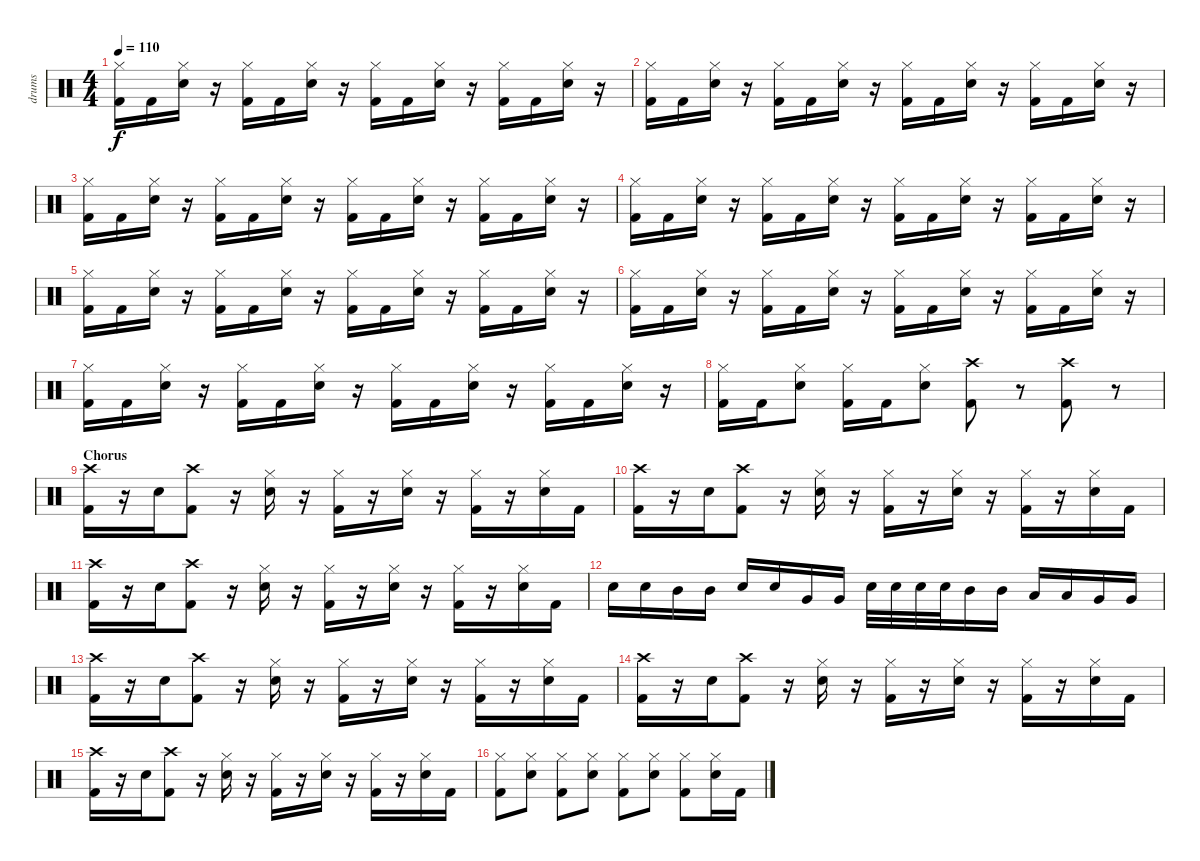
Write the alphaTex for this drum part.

\track ("drums" "drums") {instrument percussion}
\staff {score}
\articulation defaults
\ts (4 4)
\tempo 110
\clef neutral
\ks c
("Hi-Hat (closed)" "Kick (hit) 2").16{dy f} "Kick (hit) 2".16 ("Hi-Hat (closed)" "Snare (hit) 2").16 r.16 ("Hi-Hat (closed)" "Kick (hit) 2").16 "Kick (hit) 2".16 ("Hi-Hat (closed)" "Snare (hit) 2").16 r.16 ("Hi-Hat (closed)" "Kick (hit) 2").16 "Kick (hit) 2".16 ("Hi-Hat (closed)" "Snare (hit) 2").16 r.16 ("Hi-Hat (closed)" "Kick (hit) 2").16 "Kick (hit) 2".16 ("Hi-Hat (closed)" "Snare (hit) 2").16 r.16 |
("Hi-Hat (closed)" "Kick (hit) 2").16 "Kick (hit) 2".16 ("Hi-Hat (closed)" "Snare (hit) 2").16 r.16 ("Hi-Hat (closed)" "Kick (hit) 2").16 "Kick (hit) 2".16 ("Hi-Hat (closed)" "Snare (hit) 2").16 r.16 ("Hi-Hat (closed)" "Kick (hit) 2").16 "Kick (hit) 2".16 ("Hi-Hat (closed)" "Snare (hit) 2").16 r.16 ("Hi-Hat (closed)" "Kick (hit) 2").16 "Kick (hit) 2".16 ("Hi-Hat (closed)" "Snare (hit) 2").16 r.16 |
("Hi-Hat (closed)" "Kick (hit) 2").16 "Kick (hit) 2".16 ("Hi-Hat (closed)" "Snare (hit) 2").16 r.16 ("Hi-Hat (closed)" "Kick (hit) 2").16 "Kick (hit) 2".16 ("Hi-Hat (closed)" "Snare (hit) 2").16 r.16 ("Hi-Hat (closed)" "Kick (hit) 2").16 "Kick (hit) 2".16 ("Hi-Hat (closed)" "Snare (hit) 2").16 r.16 ("Hi-Hat (closed)" "Kick (hit) 2").16 "Kick (hit) 2".16 ("Hi-Hat (closed)" "Snare (hit) 2").16 r.16 |
("Hi-Hat (closed)" "Kick (hit) 2").16 "Kick (hit) 2".16 ("Hi-Hat (closed)" "Snare (hit) 2").16 r.16 ("Hi-Hat (closed)" "Kick (hit) 2").16 "Kick (hit) 2".16 ("Hi-Hat (closed)" "Snare (hit) 2").16 r.16 ("Hi-Hat (closed)" "Kick (hit) 2").16 "Kick (hit) 2".16 ("Hi-Hat (closed)" "Snare (hit) 2").16 r.16 ("Hi-Hat (closed)" "Kick (hit) 2").16 "Kick (hit) 2".16 ("Hi-Hat (closed)" "Snare (hit) 2").16 r.16 |
("Hi-Hat (closed)" "Kick (hit) 2").16 "Kick (hit) 2".16 ("Hi-Hat (closed)" "Snare (hit) 2").16 r.16 ("Hi-Hat (closed)" "Kick (hit) 2").16 "Kick (hit) 2".16 ("Hi-Hat (closed)" "Snare (hit) 2").16 r.16 ("Hi-Hat (closed)" "Kick (hit) 2").16 "Kick (hit) 2".16 ("Hi-Hat (closed)" "Snare (hit) 2").16 r.16 ("Hi-Hat (closed)" "Kick (hit) 2").16 "Kick (hit) 2".16 ("Hi-Hat (closed)" "Snare (hit) 2").16 r.16 |
("Hi-Hat (closed)" "Kick (hit) 2").16 "Kick (hit) 2".16 ("Hi-Hat (closed)" "Snare (hit) 2").16 r.16 ("Hi-Hat (closed)" "Kick (hit) 2").16 "Kick (hit) 2".16 ("Hi-Hat (closed)" "Snare (hit) 2").16 r.16 ("Hi-Hat (closed)" "Kick (hit) 2").16 "Kick (hit) 2".16 ("Hi-Hat (closed)" "Snare (hit) 2").16 r.16 ("Hi-Hat (closed)" "Kick (hit) 2").16 "Kick (hit) 2".16 ("Hi-Hat (closed)" "Snare (hit) 2").16 r.16 |
("Hi-Hat (closed)" "Kick (hit) 2").16 "Kick (hit) 2".16 ("Hi-Hat (closed)" "Snare (hit) 2").16 r.16 ("Hi-Hat (closed)" "Kick (hit) 2").16 "Kick (hit) 2".16 ("Hi-Hat (closed)" "Snare (hit) 2").16 r.16 ("Hi-Hat (closed)" "Kick (hit) 2").16 "Kick (hit) 2".16 ("Hi-Hat (closed)" "Snare (hit) 2").16 r.16 ("Hi-Hat (closed)" "Kick (hit) 2").16 "Kick (hit) 2".16 ("Hi-Hat (closed)" "Snare (hit) 2").16 r.16 |
("Hi-Hat (closed)" "Kick (hit) 2").16 "Kick (hit) 2".16 ("Hi-Hat (closed)" "Snare (hit) 2").8 ("Hi-Hat (closed)" "Kick (hit) 2").16 "Kick (hit) 2".16 ("Hi-Hat (closed)" "Snare (hit) 2").8 ("Crash high (hit)" "Kick (hit) 2").8 r.8 ("Crash high (hit)" "Kick (hit) 2").8 r.8 |
\section ("" "Chorus")
("Crash high (hit)" "Kick (hit) 2").16 r.16 "Snare (hit) 2".16 ("Crash high (hit)" "Kick (hit) 2").8 r.16 ("Hi-Hat (closed)" "Snare (hit) 2").16 r.16 ("Hi-Hat (closed)" "Kick (hit) 2").16 r.16 ("Hi-Hat (closed)" "Snare (hit) 2").16 r.16 ("Hi-Hat (closed)" "Kick (hit) 2").16 r.16 ("Hi-Hat (closed)" "Snare (hit) 2").16 "Kick (hit) 2".16 |
("Crash high (hit)" "Kick (hit) 2").16 r.16 "Snare (hit) 2".16 ("Crash high (hit)" "Kick (hit) 2").8 r.16 ("Hi-Hat (closed)" "Snare (hit) 2").16 r.16 ("Hi-Hat (closed)" "Kick (hit) 2").16 r.16 ("Hi-Hat (closed)" "Snare (hit) 2").16 r.16 ("Hi-Hat (closed)" "Kick (hit) 2").16 r.16 ("Hi-Hat (closed)" "Snare (hit) 2").16 "Kick (hit) 2".16 |
("Crash high (hit)" "Kick (hit) 2").16 r.16 "Snare (hit) 2".16 ("Crash high (hit)" "Kick (hit) 2").8 r.16 ("Hi-Hat (closed)" "Snare (hit) 2").16 r.16 ("Hi-Hat (closed)" "Kick (hit) 2").16 r.16 ("Hi-Hat (closed)" "Snare (hit) 2").16 r.16 ("Hi-Hat (closed)" "Kick (hit) 2").16 r.16 ("Hi-Hat (closed)" "Snare (hit) 2").16 "Kick (hit) 2".16 |
"Snare (hit) 2".16 "Snare (hit) 2".16 "Mid Tom (hit)".16 "Mid Tom (hit)".16 "Snare (hit) 2".16 "Snare (hit) 2".16 "Very Low Tom (hit)".16 "Very Low Tom (hit)".16 "Snare (hit) 2".32 "Snare (hit) 2".32 "Snare (hit) 2".32 "Snare (hit) 2".32 "Mid Tom (hit)".16 "Mid Tom (hit)".16 "Low Tom (hit)".16 "Low Tom (hit)".16 "Very Low Tom (hit)".16 "Very Low Tom (hit)".16 |
("Crash high (hit)" "Kick (hit) 2").16 r.16 "Snare (hit) 2".16 ("Crash high (hit)" "Kick (hit) 2").8 r.16 ("Hi-Hat (closed)" "Snare (hit) 2").16 r.16 ("Hi-Hat (closed)" "Kick (hit) 2").16 r.16 ("Hi-Hat (closed)" "Snare (hit) 2").16 r.16 ("Hi-Hat (closed)" "Kick (hit) 2").16 r.16 ("Hi-Hat (closed)" "Snare (hit) 2").16 "Kick (hit) 2".16 |
("Crash high (hit)" "Kick (hit) 2").16 r.16 "Snare (hit) 2".16 ("Crash high (hit)" "Kick (hit) 2").8 r.16 ("Hi-Hat (closed)" "Snare (hit) 2").16 r.16 ("Hi-Hat (closed)" "Kick (hit) 2").16 r.16 ("Hi-Hat (closed)" "Snare (hit) 2").16 r.16 ("Hi-Hat (closed)" "Kick (hit) 2").16 r.16 ("Hi-Hat (closed)" "Snare (hit) 2").16 "Kick (hit) 2".16 |
("Crash high (hit)" "Kick (hit) 2").16 r.16 "Snare (hit) 2".16 ("Crash high (hit)" "Kick (hit) 2").8 r.16 ("Hi-Hat (closed)" "Snare (hit) 2").16 r.16 ("Hi-Hat (closed)" "Kick (hit) 2").16 r.16 ("Hi-Hat (closed)" "Snare (hit) 2").16 r.16 ("Hi-Hat (closed)" "Kick (hit) 2").16 r.16 ("Hi-Hat (closed)" "Snare (hit) 2").16 "Kick (hit) 2".16 |
("Hi-Hat (closed)" "Kick (hit) 2").8 ("Hi-Hat (closed)" "Snare (hit) 2").8 ("Hi-Hat (closed)" "Kick (hit) 2").8 ("Hi-Hat (closed)" "Snare (hit) 2").8 ("Hi-Hat (closed)" "Kick (hit) 2").8 ("Hi-Hat (closed)" "Snare (hit) 2").8 ("Hi-Hat (closed)" "Kick (hit) 2").8 ("Hi-Hat (closed)" "Snare (hit) 2").16 "Kick (hit) 2".16
